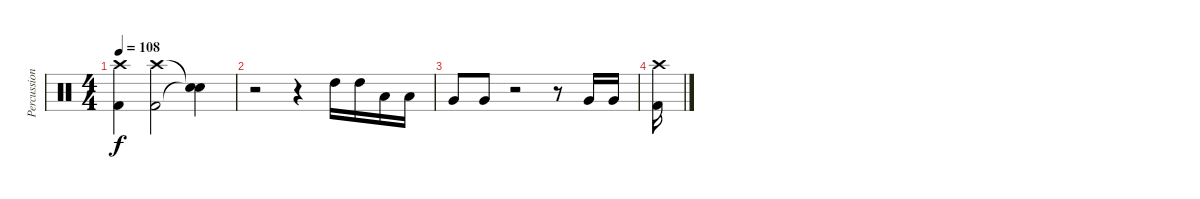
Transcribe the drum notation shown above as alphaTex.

\track ("Percussion" "Percussion") {instrument percussion}
\staff {score}
\articulation defaults
\ts (4 4)
\tempo 108
\clef neutral
\ks c
("Crash high (hit)" "Kick (hit) 2").4{dy f} ("Crash high (hit)" "Kick (hit) 2").2 ("Snare (hit)"{t} "Snare (hit)"{t}).4 |
r.2 r.4 "High Tom (hit)".16 "High Tom (hit)".16 "Low Tom (hit)".16 "Low Tom (hit)".16 |
"Very Low Tom (hit)".8 "Very Low Tom (hit)".8 r.2 r.8 "Very Low Tom (hit)".16 "Very Low Tom (hit)".16 |
("Crash high (hit)" "Kick (hit) 2").16
